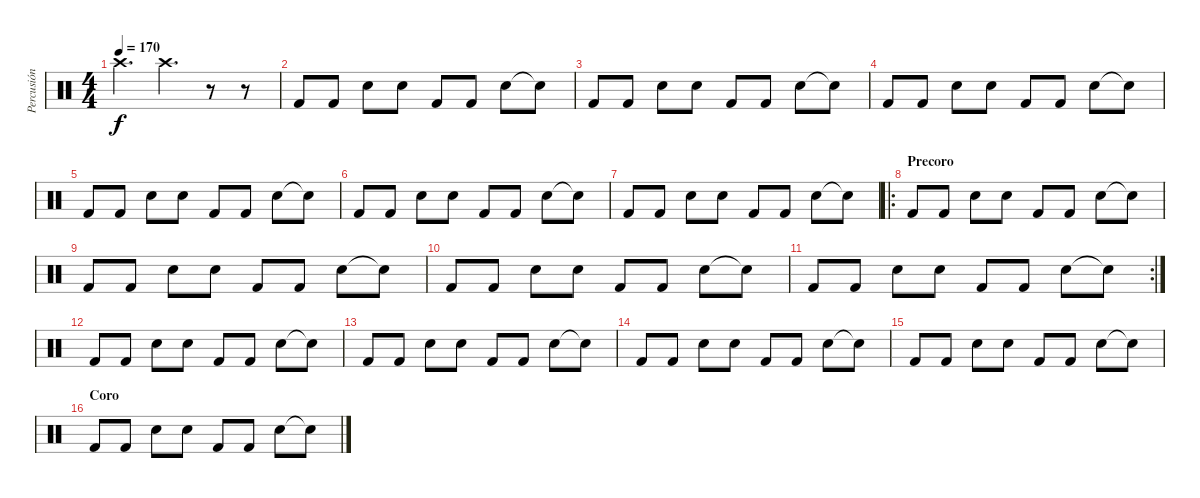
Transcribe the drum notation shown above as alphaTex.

\track ("Percusión" "Percusión") {instrument percussion}
\staff {score}
\articulation defaults
\ts (4 4)
\tempo 170
\clef neutral
\ks c "Crash high (hit)".4{d dy f} "Crash high (hit)".4{d}
r.8 r.8 |
"Kick (hit) 2".8 "Kick (hit) 2".8 "Electric Snare (hit)".8 "Electric Snare (hit)".8 "Kick (hit) 2".8 "Kick (hit) 2".8 "Electric Snare (hit)".8 "Snare (hit)"{t}.8 |
"Kick (hit) 2".8 "Kick (hit) 2".8 "Electric Snare (hit)".8 "Electric Snare (hit)".8 "Kick (hit) 2".8 "Kick (hit) 2".8 "Electric Snare (hit)".8 "Snare (hit)"{t}.8 |
"Kick (hit) 2".8 "Kick (hit) 2".8 "Electric Snare (hit)".8 "Electric Snare (hit)".8 "Kick (hit) 2".8 "Kick (hit) 2".8 "Electric Snare (hit)".8 "Snare (hit)"{t}.8 |
"Kick (hit) 2".8 "Kick (hit) 2".8 "Electric Snare (hit)".8 "Electric Snare (hit)".8 "Kick (hit) 2".8 "Kick (hit) 2".8 "Electric Snare (hit)".8 "Snare (hit)"{t}.8 |
"Kick (hit) 2".8 "Kick (hit) 2".8 "Electric Snare (hit)".8 "Electric Snare (hit)".8 "Kick (hit) 2".8 "Kick (hit) 2".8 "Electric Snare (hit)".8 "Snare (hit)"{t}.8 |
"Kick (hit) 2".8 "Kick (hit) 2".8 "Electric Snare (hit)".8 "Electric Snare (hit)".8 "Kick (hit) 2".8 "Kick (hit) 2".8 "Electric Snare (hit)".8 "Snare (hit)"{t}.8 |
\ro
\section ("" "Precoro")
"Kick (hit) 2".8 "Kick (hit) 2".8 "Electric Snare (hit)".8 "Electric Snare (hit)".8 "Kick (hit) 2".8 "Kick (hit) 2".8 "Electric Snare (hit)".8 "Snare (hit)"{t}.8 |
"Kick (hit) 2".8 "Kick (hit) 2".8 "Electric Snare (hit)".8 "Electric Snare (hit)".8 "Kick (hit) 2".8 "Kick (hit) 2".8 "Electric Snare (hit)".8 "Snare (hit)"{t}.8 |
"Kick (hit) 2".8 "Kick (hit) 2".8 "Electric Snare (hit)".8 "Electric Snare (hit)".8 "Kick (hit) 2".8 "Kick (hit) 2".8 "Electric Snare (hit)".8 "Snare (hit)"{t}.8 |
\rc 2 "Kick (hit) 2".8 "Kick (hit) 2".8 "Electric Snare (hit)".8 "Electric Snare (hit)".8 "Kick (hit) 2".8 "Kick (hit) 2".8 "Electric Snare (hit)".8 "Snare (hit)"{t}.8
|
"Kick (hit) 2".8 "Kick (hit) 2".8 "Electric Snare (hit)".8 "Electric Snare (hit)".8 "Kick (hit) 2".8 "Kick (hit) 2".8 "Electric Snare (hit)".8 "Snare (hit)"{t}.8 |
"Kick (hit) 2".8 "Kick (hit) 2".8 "Electric Snare (hit)".8 "Electric Snare (hit)".8 "Kick (hit) 2".8 "Kick (hit) 2".8 "Electric Snare (hit)".8 "Snare (hit)"{t}.8 |
"Kick (hit) 2".8 "Kick (hit) 2".8 "Electric Snare (hit)".8 "Electric Snare (hit)".8 "Kick (hit) 2".8 "Kick (hit) 2".8 "Electric Snare (hit)".8 "Snare (hit)"{t}.8 |
"Kick (hit) 2".8 "Kick (hit) 2".8 "Electric Snare (hit)".8 "Electric Snare (hit)".8 "Kick (hit) 2".8 "Kick (hit) 2".8 "Electric Snare (hit)".8 "Snare (hit)"{t}.8 |
\section ("" "Coro")
"Kick (hit) 2".8 "Kick (hit) 2".8 "Electric Snare (hit)".8 "Electric Snare (hit)".8 "Kick (hit) 2".8 "Kick (hit) 2".8 "Electric Snare (hit)".8 "Snare (hit)"{t}.8
